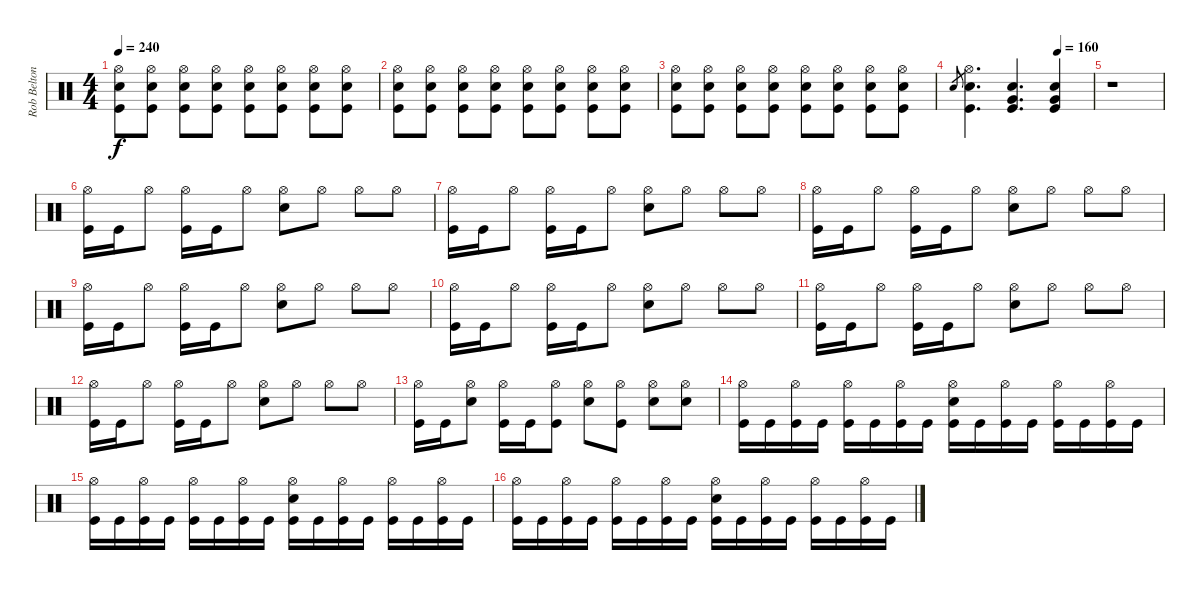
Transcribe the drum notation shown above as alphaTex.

\track ("Rob Belton" "Rob Belton") {instrument percussion}
\staff {score}
\articulation defaults
\ts (4 4)
\tempo 240
\clef neutral
\ks c
("Kick (hit)" "Snare (hit) 2" "Hi-Hat (open)").8{dy f} ("Kick (hit)" "Snare (hit) 2" "Hi-Hat (open)").8 ("Kick (hit)" "Snare (hit) 2" "Hi-Hat (open)").8 ("Kick (hit)" "Snare (hit) 2" "Hi-Hat (open)").8 ("Kick (hit)" "Snare (hit) 2" "Hi-Hat (open)").8 ("Kick (hit)" "Snare (hit) 2" "Hi-Hat (open)").8 ("Kick (hit)" "Snare (hit) 2" "Hi-Hat (open)").8 ("Kick (hit)" "Snare (hit) 2" "Hi-Hat (open)").8 |
("Kick (hit)" "Snare (hit) 2" "Hi-Hat (open)").8 ("Kick (hit)" "Snare (hit) 2" "Hi-Hat (open)").8 ("Kick (hit)" "Snare (hit) 2" "Hi-Hat (open)").8 ("Kick (hit)" "Snare (hit) 2" "Hi-Hat (open)").8 ("Kick (hit)" "Snare (hit) 2" "Hi-Hat (open)").8 ("Kick (hit)" "Snare (hit) 2" "Hi-Hat (open)").8 ("Kick (hit)" "Snare (hit) 2" "Hi-Hat (open)").8 ("Kick (hit)" "Snare (hit) 2" "Hi-Hat (open)").8 |
("Kick (hit)" "Snare (hit) 2" "Hi-Hat (open)").8 ("Kick (hit)" "Snare (hit) 2" "Hi-Hat (open)").8 ("Kick (hit)" "Snare (hit) 2" "Hi-Hat (open)").8 ("Kick (hit)" "Snare (hit) 2" "Hi-Hat (open)").8 ("Kick (hit)" "Snare (hit) 2" "Hi-Hat (open)").8 ("Kick (hit)" "Snare (hit) 2" "Hi-Hat (open)").8 ("Kick (hit)" "Snare (hit) 2" "Hi-Hat (open)").8 ("Kick (hit)" "Snare (hit) 2" "Hi-Hat (open)").8 |
\tempo (160 0.75)
"Snare (hit)".8{gr} ("Kick (hit)" "Snare (hit) 2" "Hi-Hat (open)").4{d} ("Kick (hit)" "Very Low Tom (hit)" "Snare (hit) 2").4{d} ("Kick (hit)" "Very Low Tom (hit)" "Snare (hit) 2").4 |
r.1 |
("Kick (hit)" "Hi-Hat (open)").16 "Kick (hit)".16 "Hi-Hat (open)".8 ("Kick (hit)" "Hi-Hat (open)").16 "Kick (hit)".16 "Hi-Hat (open)".8 ("Hi-Hat (open)" "Snare (hit) 2").8 "Hi-Hat (open)".8 "Hi-Hat (open)".8 "Hi-Hat (open)".8 |
("Kick (hit)" "Hi-Hat (open)").16 "Kick (hit)".16 "Hi-Hat (open)".8 ("Kick (hit)" "Hi-Hat (open)").16 "Kick (hit)".16 "Hi-Hat (open)".8 ("Hi-Hat (open)" "Snare (hit) 2").8 "Hi-Hat (open)".8 "Hi-Hat (open)".8 "Hi-Hat (open)".8 |
("Kick (hit)" "Hi-Hat (open)").16 "Kick (hit)".16 "Hi-Hat (open)".8 ("Kick (hit)" "Hi-Hat (open)").16 "Kick (hit)".16 "Hi-Hat (open)".8 ("Hi-Hat (open)" "Snare (hit) 2").8 "Hi-Hat (open)".8 "Hi-Hat (open)".8 "Hi-Hat (open)".8 |
("Kick (hit)" "Hi-Hat (open)").16 "Kick (hit)".16 "Hi-Hat (open)".8 ("Kick (hit)" "Hi-Hat (open)").16 "Kick (hit)".16 "Hi-Hat (open)".8 ("Hi-Hat (open)" "Snare (hit) 2").8 "Hi-Hat (open)".8 "Hi-Hat (open)".8 "Hi-Hat (open)".8 |
("Kick (hit)" "Hi-Hat (open)").16 "Kick (hit)".16 "Hi-Hat (open)".8 ("Kick (hit)" "Hi-Hat (open)").16 "Kick (hit)".16 "Hi-Hat (open)".8 ("Hi-Hat (open)" "Snare (hit) 2").8 "Hi-Hat (open)".8 "Hi-Hat (open)".8 "Hi-Hat (open)".8 |
("Kick (hit)" "Hi-Hat (open)").16 "Kick (hit)".16 "Hi-Hat (open)".8 ("Kick (hit)" "Hi-Hat (open)").16 "Kick (hit)".16 "Hi-Hat (open)".8 ("Hi-Hat (open)" "Snare (hit) 2").8 "Hi-Hat (open)".8 "Hi-Hat (open)".8 "Hi-Hat (open)".8 |
("Kick (hit)" "Hi-Hat (open)").16 "Kick (hit)".16 "Hi-Hat (open)".8 ("Kick (hit)" "Hi-Hat (open)").16 "Kick (hit)".16 "Hi-Hat (open)".8 ("Hi-Hat (open)" "Snare (hit) 2").8 "Hi-Hat (open)".8 "Hi-Hat (open)".8 "Hi-Hat (open)".8 |
("Kick (hit)" "Hi-Hat (open)").16 "Kick (hit)".16 ("Snare (hit) 2" "Hi-Hat (open)").8 ("Kick (hit)" "Hi-Hat (open)").16 "Kick (hit)".16 ("Kick (hit)" "Hi-Hat (open)").8 ("Snare (hit) 2" "Hi-Hat (open)").8 ("Kick (hit)" "Hi-Hat (open)").8 ("Snare (hit) 2" "Hi-Hat (open)").8 ("Snare (hit) 2" "Hi-Hat (open)").8 |
("Kick (hit)" "Hi-Hat (open)").16 "Kick (hit)".16 ("Kick (hit)" "Hi-Hat (open)").16 "Kick (hit)".16 ("Kick (hit)" "Hi-Hat (open)").16 "Kick (hit)".16 ("Kick (hit)" "Hi-Hat (open)").16 "Kick (hit)".16 ("Kick (hit)" "Hi-Hat (open)" "Snare (hit) 2").16 "Kick (hit)".16 ("Kick (hit)" "Hi-Hat (open)").16 "Kick (hit)".16 ("Kick (hit)" "Hi-Hat (open)").16 "Kick (hit)".16 ("Kick (hit)" "Hi-Hat (open)").16 "Kick (hit)".16 |
("Kick (hit)" "Hi-Hat (open)").16 "Kick (hit)".16 ("Kick (hit)" "Hi-Hat (open)").16 "Kick (hit)".16 ("Kick (hit)" "Hi-Hat (open)").16 "Kick (hit)".16 ("Kick (hit)" "Hi-Hat (open)").16 "Kick (hit)".16 ("Kick (hit)" "Hi-Hat (open)" "Snare (hit) 2").16 "Kick (hit)".16 ("Kick (hit)" "Hi-Hat (open)").16 "Kick (hit)".16 ("Kick (hit)" "Hi-Hat (open)").16 "Kick (hit)".16 ("Kick (hit)" "Hi-Hat (open)").16 "Kick (hit)".16 |
("Kick (hit)" "Hi-Hat (open)").16 "Kick (hit)".16 ("Kick (hit)" "Hi-Hat (open)").16 "Kick (hit)".16 ("Kick (hit)" "Hi-Hat (open)").16 "Kick (hit)".16 ("Kick (hit)" "Hi-Hat (open)").16 "Kick (hit)".16 ("Kick (hit)" "Hi-Hat (open)" "Snare (hit) 2").16 "Kick (hit)".16 ("Kick (hit)" "Hi-Hat (open)").16 "Kick (hit)".16 ("Kick (hit)" "Hi-Hat (open)").16 "Kick (hit)".16 ("Kick (hit)" "Hi-Hat (open)").16 "Kick (hit)".16
